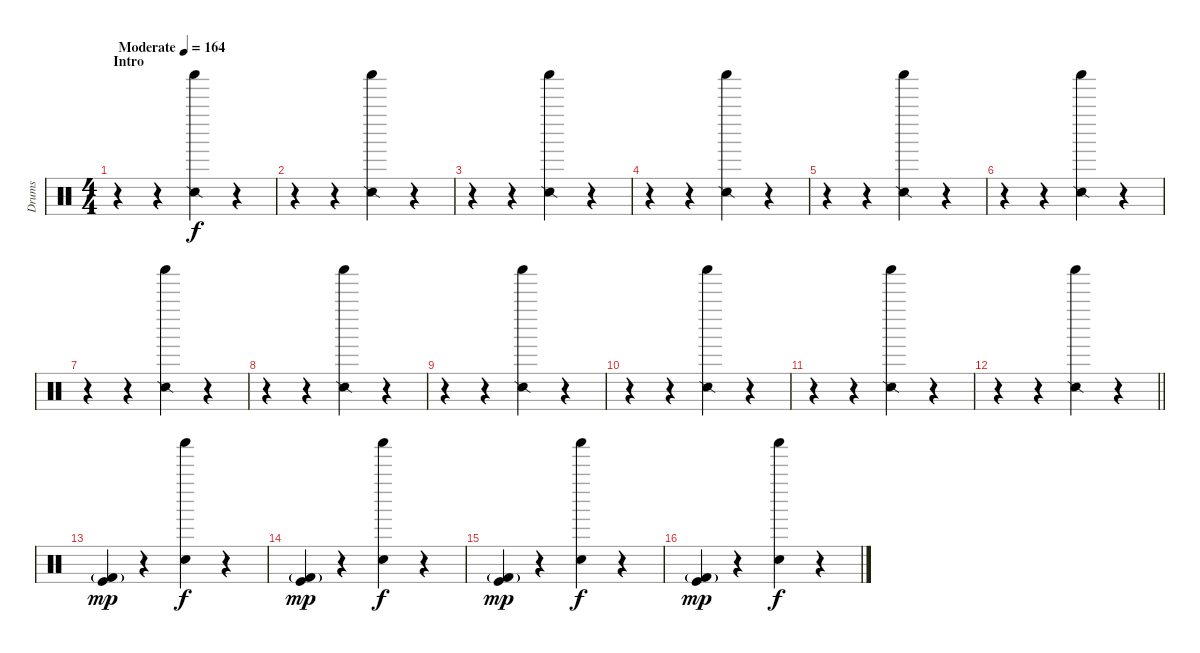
\track ("Drums" "Drums") {instrument percussion}
\staff {score}
\articulation defaults
\ts (4 4)
\section ("" "Intro")
\tempo (164 "Moderate")
\clef neutral
\ks c
r.4{dy f} r.4 ("Shaker (hit)" "Snare (side stick) 2").4 r.4 |
r.4 r.4 ("Shaker (hit)" "Snare (side stick) 2").4 r.4 |
r.4 r.4 ("Shaker (hit)" "Snare (side stick) 2").4 r.4 |
r.4 r.4 ("Shaker (hit)" "Snare (side stick) 2").4 r.4 |
r.4 r.4 ("Shaker (hit)" "Snare (side stick) 2").4 r.4 |
r.4 r.4 ("Shaker (hit)" "Snare (side stick) 2").4 r.4 |
r.4 r.4 ("Shaker (hit)" "Snare (side stick) 2").4 r.4 |
r.4 r.4 ("Shaker (hit)" "Snare (side stick) 2").4 r.4 |
r.4 r.4 ("Shaker (hit)" "Snare (side stick) 2").4 r.4 |
r.4 r.4 ("Shaker (hit)" "Snare (side stick) 2").4 r.4 |
r.4 r.4 ("Shaker (hit)" "Snare (side stick) 2").4 r.4 |
\barLineRight lightlight
r.4 r.4 ("Shaker (hit)" "Snare (side stick) 2").4 r.4 |
\section ("" "")
("Kick (hit) 2"{g} "Kick (hit)").4{dy mp} r.4 ("Shaker (hit)" "Hand Clap (hit)").4{dy f} r.4 |
("Kick (hit) 2"{g} "Kick (hit)").4{dy mp} r.4 ("Shaker (hit)" "Hand Clap (hit)").4{dy f} r.4 |
("Kick (hit) 2"{g} "Kick (hit)").4{dy mp} r.4 ("Shaker (hit)" "Hand Clap (hit)").4{dy f} r.4 |
("Kick (hit) 2"{g} "Kick (hit)").4{dy mp} r.4 ("Shaker (hit)" "Hand Clap (hit)").4{dy f} r.4
